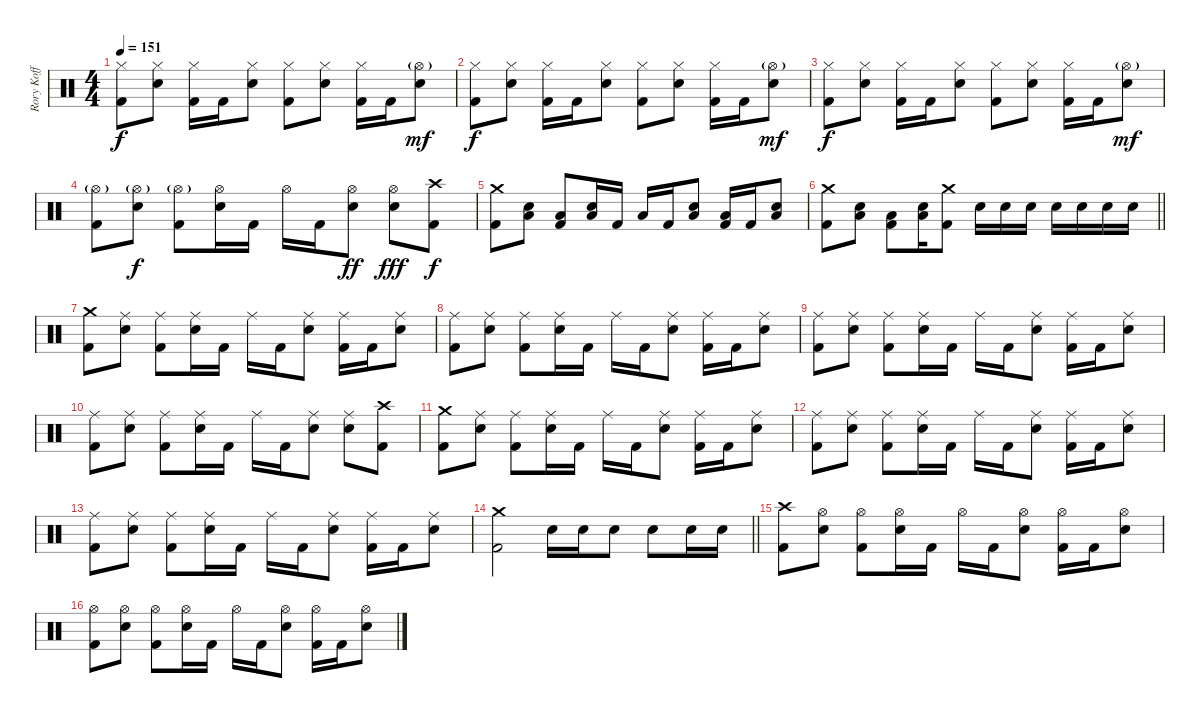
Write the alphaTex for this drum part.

\track ("Rory Koff" "Rory Koff") {instrument percussion}
\staff {score}
\articulation defaults
\ts (4 4)
\tempo 151
\clef neutral
\ks c
("Hi-Hat (closed)" "Kick (hit) 2").8{dy f} ("Hi-Hat (closed)" "Electric Snare (hit)").8 ("Hi-Hat (closed)" "Kick (hit) 2").16 "Kick (hit) 2".16 ("Hi-Hat (closed)" "Electric Snare (hit)").8 ("Hi-Hat (closed)" "Kick (hit) 2").8 ("Hi-Hat (closed)" "Electric Snare (hit)").8 ("Hi-Hat (closed)" "Kick (hit) 2").16 "Kick (hit) 2".16 ("Hi-Hat (open)"{g} "Electric Snare (hit)").8{dy mf} |
("Hi-Hat (closed)" "Kick (hit) 2").8{dy f} ("Hi-Hat (closed)" "Electric Snare (hit)").8 ("Hi-Hat (closed)" "Kick (hit) 2").16 "Kick (hit) 2".16 ("Hi-Hat (closed)" "Electric Snare (hit)").8 ("Hi-Hat (closed)" "Kick (hit) 2").8 ("Hi-Hat (closed)" "Electric Snare (hit)").8 ("Hi-Hat (closed)" "Kick (hit) 2").16 "Kick (hit) 2".16 ("Hi-Hat (open)"{g} "Electric Snare (hit)").8{dy mf} |
("Hi-Hat (closed)" "Kick (hit) 2").8{dy f} ("Hi-Hat (closed)" "Electric Snare (hit)").8 ("Hi-Hat (closed)" "Kick (hit) 2").16 "Kick (hit) 2".16 ("Hi-Hat (closed)" "Electric Snare (hit)").8 ("Hi-Hat (closed)" "Kick (hit) 2").8 ("Hi-Hat (closed)" "Electric Snare (hit)").8 ("Hi-Hat (closed)" "Kick (hit) 2").16 "Kick (hit) 2".16 ("Hi-Hat (open)"{g} "Electric Snare (hit)").8{dy mf} |
("Hi-Hat (open)"{g} "Kick (hit) 2").8 ("Hi-Hat (open)"{g} "Electric Snare (hit)").8{dy f} ("Hi-Hat (open)"{g} "Kick (hit) 2").8 ("Hi-Hat (open)" "Electric Snare (hit)").16 "Kick (hit) 2".16 "Hi-Hat (open)".16 "Kick (hit) 2".16 ("Hi-Hat (open)" "Electric Snare (hit)").8{dy ff} ("Hi-Hat (open)" "Electric Snare (hit)").8{dy fff} ("Crash high (hit)" "Kick (hit) 2").8{dy f} |
("Crash medium (hit)" "Kick (hit) 2").8 ("Electric Snare (hit)" "Low Floor Tom (hit)").8 ("Low Floor Tom (hit)" "Kick (hit) 2").8 ("Electric Snare (hit)" "Low Floor Tom (hit)").16 "Kick (hit) 2".16 "Low Floor Tom (hit)".16 "Kick (hit) 2".16 ("Electric Snare (hit)" "Low Floor Tom (hit)").8 ("Low Floor Tom (hit)" "Kick (hit) 2").16 "Kick (hit) 2".16 ("Electric Snare (hit)" "Low Floor Tom (hit)").8 |
\barLineRight lightlight
("Crash medium (hit)" "Kick (hit) 2").8 ("Electric Snare (hit)" "Low Floor Tom (hit)").8 ("Low Floor Tom (hit)" "Kick (hit) 2").8 ("Electric Snare (hit)" "Low Floor Tom (hit)").16 ("Crash medium (hit)" "Kick (hit) 2").8 "Electric Snare (hit)".16 "Electric Snare (hit)".16 "Electric Snare (hit)".16 "Electric Snare (hit)".16 "Electric Snare (hit)".16 "Electric Snare (hit)".16 "Electric Snare (hit)".16 |
\section ("" "")
("Crash medium (hit)" "Kick (hit) 2").8 ("Ride (middle)" "Electric Snare (hit)").8 ("Ride (middle)" "Kick (hit) 2").8 ("Ride (middle)" "Electric Snare (hit)").16 "Kick (hit) 2".16 "Ride (middle)".16 "Kick (hit) 2".16 ("Ride (middle)" "Electric Snare (hit)").8 ("Ride (middle)" "Kick (hit) 2").16 "Kick (hit) 2".16 ("Ride (middle)" "Electric Snare (hit)").8 |
("Ride (middle)" "Kick (hit) 2").8 ("Ride (middle)" "Electric Snare (hit)").8 ("Ride (middle)" "Kick (hit) 2").8 ("Ride (middle)" "Electric Snare (hit)").16 "Kick (hit) 2".16 "Ride (middle)".16 "Kick (hit) 2".16 ("Ride (middle)" "Electric Snare (hit)").8 ("Ride (middle)" "Kick (hit) 2").16 "Kick (hit) 2".16 ("Ride (middle)" "Electric Snare (hit)").8 |
("Ride (middle)" "Kick (hit) 2").8 ("Ride (middle)" "Electric Snare (hit)").8 ("Ride (middle)" "Kick (hit) 2").8 ("Ride (middle)" "Electric Snare (hit)").16 "Kick (hit) 2".16 "Ride (middle)".16 "Kick (hit) 2".16 ("Ride (middle)" "Electric Snare (hit)").8 ("Ride (middle)" "Kick (hit) 2").16 "Kick (hit) 2".16 ("Ride (middle)" "Electric Snare (hit)").8 |
("Ride (middle)" "Kick (hit) 2").8 ("Ride (middle)" "Electric Snare (hit)").8 ("Ride (middle)" "Kick (hit) 2").8 ("Ride (middle)" "Electric Snare (hit)").16 "Kick (hit) 2".16 "Ride (middle)".16 "Kick (hit) 2".16 ("Ride (middle)" "Electric Snare (hit)").8 ("Ride (middle)" "Electric Snare (hit)").8 ("Crash high (hit)" "Kick (hit) 2").8 |
("Crash medium (hit)" "Kick (hit) 2").8 ("Ride (middle)" "Electric Snare (hit)").8 ("Ride (middle)" "Kick (hit) 2").8 ("Ride (middle)" "Electric Snare (hit)").16 "Kick (hit) 2".16 "Ride (middle)".16 "Kick (hit) 2".16 ("Ride (middle)" "Electric Snare (hit)").8 ("Ride (middle)" "Kick (hit) 2").16 "Kick (hit) 2".16 ("Ride (middle)" "Electric Snare (hit)").8 |
("Ride (middle)" "Kick (hit) 2").8 ("Ride (middle)" "Electric Snare (hit)").8 ("Ride (middle)" "Kick (hit) 2").8 ("Ride (middle)" "Electric Snare (hit)").16 "Kick (hit) 2".16 "Ride (middle)".16 "Kick (hit) 2".16 ("Ride (middle)" "Electric Snare (hit)").8 ("Ride (middle)" "Kick (hit) 2").16 "Kick (hit) 2".16 ("Ride (middle)" "Electric Snare (hit)").8 |
("Ride (middle)" "Kick (hit) 2").8 ("Ride (middle)" "Electric Snare (hit)").8 ("Ride (middle)" "Kick (hit) 2").8 ("Ride (middle)" "Electric Snare (hit)").16 "Kick (hit) 2".16 "Ride (middle)".16 "Kick (hit) 2".16 ("Ride (middle)" "Electric Snare (hit)").8 ("Ride (middle)" "Kick (hit) 2").16 "Kick (hit) 2".16 ("Ride (middle)" "Electric Snare (hit)").8 |
\barLineRight lightlight
("Crash medium (hit)" "Kick (hit) 2").2 "Electric Snare (hit)".16 "Electric Snare (hit)".16 "Electric Snare (hit)".8 "Electric Snare (hit)".8 "Electric Snare (hit)".16 "Electric Snare (hit)".16 |
\section ("" "")
("Crash high (hit)" "Kick (hit) 2").8 ("Hi-Hat (open)" "Electric Snare (hit)").8 ("Hi-Hat (open)" "Kick (hit) 2").8 ("Hi-Hat (open)" "Electric Snare (hit)").16 "Kick (hit) 2".16 "Hi-Hat (open)".16 "Kick (hit) 2".16 ("Hi-Hat (open)" "Electric Snare (hit)").8 ("Hi-Hat (open)" "Kick (hit) 2").16 "Kick (hit) 2".16 ("Hi-Hat (open)" "Electric Snare (hit)").8 |
("Hi-Hat (open)" "Kick (hit) 2").8 ("Hi-Hat (open)" "Electric Snare (hit)").8 ("Hi-Hat (open)" "Kick (hit) 2").8 ("Hi-Hat (open)" "Electric Snare (hit)").16 "Kick (hit) 2".16 "Hi-Hat (open)".16 "Kick (hit) 2".16 ("Hi-Hat (open)" "Electric Snare (hit)").8 ("Hi-Hat (open)" "Kick (hit) 2").16 "Kick (hit) 2".16 ("Hi-Hat (open)" "Electric Snare (hit)").8
